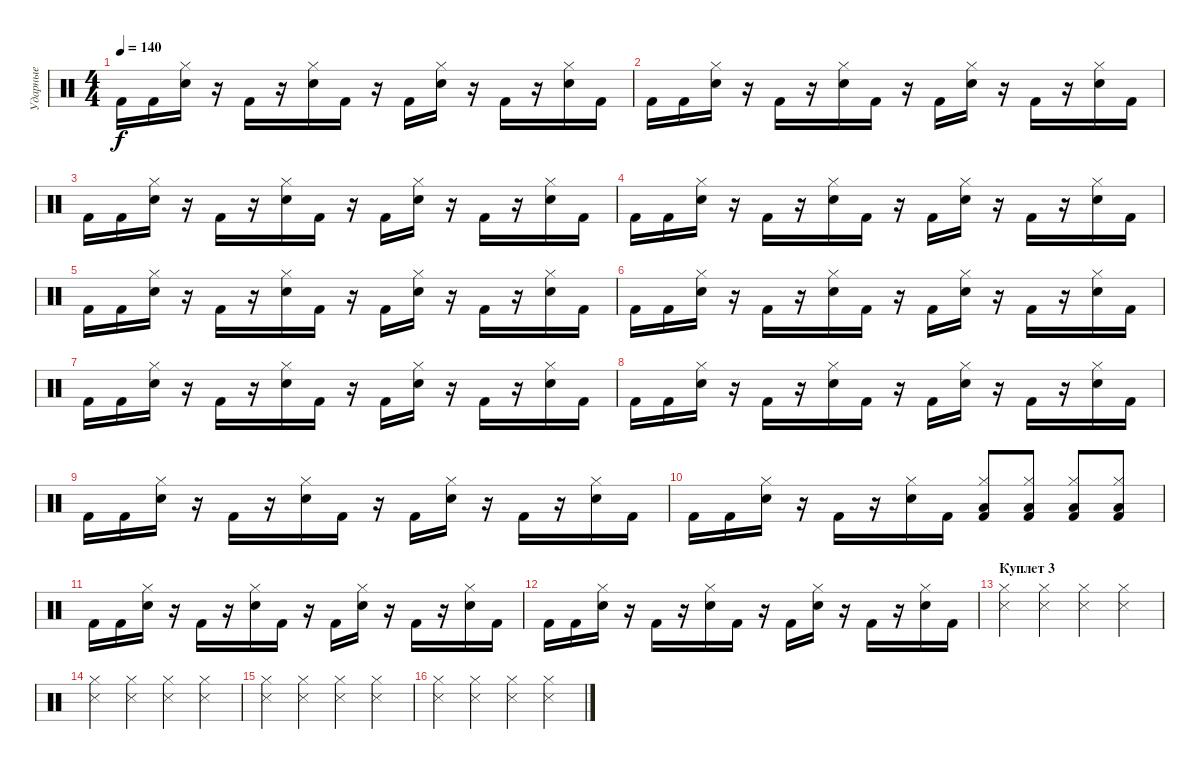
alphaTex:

\track ("Ударные" "Ударные") {instrument percussion}
\staff {score}
\articulation defaults
\ts (4 4)
\tempo 140
\clef neutral
\ks c "Kick (hit) 2".16{dy f} "Kick (hit) 2".16
("Snare (hit) 2" "Hi-Hat (closed)").16 r.16 "Kick (hit) 2".16 r.16 ("Snare (hit) 2" "Hi-Hat (closed)").16 "Kick (hit) 2".16 r.16 "Kick (hit) 2".16 ("Snare (hit) 2" "Hi-Hat (closed)").16 r.16 "Kick (hit) 2".16 r.16 ("Snare (hit) 2" "Hi-Hat (closed)").16 "Kick (hit) 2".16 |
"Kick (hit) 2".16 "Kick (hit) 2".16 ("Snare (hit) 2" "Hi-Hat (closed)").16 r.16 "Kick (hit) 2".16 r.16 ("Snare (hit) 2" "Hi-Hat (closed)").16 "Kick (hit) 2".16 r.16 "Kick (hit) 2".16 ("Snare (hit) 2" "Hi-Hat (closed)").16 r.16 "Kick (hit) 2".16 r.16 ("Snare (hit) 2" "Hi-Hat (closed)").16 "Kick (hit) 2".16 |
"Kick (hit) 2".16 "Kick (hit) 2".16 ("Snare (hit) 2" "Hi-Hat (closed)").16 r.16 "Kick (hit) 2".16 r.16 ("Snare (hit) 2" "Hi-Hat (closed)").16 "Kick (hit) 2".16 r.16 "Kick (hit) 2".16 ("Snare (hit) 2" "Hi-Hat (closed)").16 r.16 "Kick (hit) 2".16 r.16 ("Snare (hit) 2" "Hi-Hat (closed)").16 "Kick (hit) 2".16 |
"Kick (hit) 2".16 "Kick (hit) 2".16 ("Snare (hit) 2" "Hi-Hat (closed)").16 r.16 "Kick (hit) 2".16 r.16 ("Snare (hit) 2" "Hi-Hat (closed)").16 "Kick (hit) 2".16 r.16 "Kick (hit) 2".16 ("Snare (hit) 2" "Hi-Hat (closed)").16 r.16 "Kick (hit) 2".16 r.16 ("Snare (hit) 2" "Hi-Hat (closed)").16 "Kick (hit) 2".16 |
"Kick (hit) 2".16{volume 16} "Kick (hit) 2".16 ("Snare (hit) 2" "Hi-Hat (closed)").16 r.16 "Kick (hit) 2".16 r.16 ("Snare (hit) 2" "Hi-Hat (closed)").16 "Kick (hit) 2".16 r.16 "Kick (hit) 2".16 ("Snare (hit) 2" "Hi-Hat (closed)").16 r.16 "Kick (hit) 2".16 r.16 ("Snare (hit) 2" "Hi-Hat (closed)").16 "Kick (hit) 2".16 |
"Kick (hit) 2".16 "Kick (hit) 2".16 ("Snare (hit) 2" "Hi-Hat (closed)").16 r.16 "Kick (hit) 2".16 r.16 ("Snare (hit) 2" "Hi-Hat (closed)").16 "Kick (hit) 2".16 r.16 "Kick (hit) 2".16 ("Snare (hit) 2" "Hi-Hat (closed)").16 r.16 "Kick (hit) 2".16 r.16 ("Snare (hit) 2" "Hi-Hat (closed)").16 "Kick (hit) 2".16 |
"Kick (hit) 2".16{volume 16} "Kick (hit) 2".16 ("Snare (hit) 2" "Hi-Hat (closed)").16 r.16 "Kick (hit) 2".16 r.16 ("Snare (hit) 2" "Hi-Hat (closed)").16 "Kick (hit) 2".16 r.16 "Kick (hit) 2".16 ("Snare (hit) 2" "Hi-Hat (closed)").16 r.16 "Kick (hit) 2".16 r.16 ("Snare (hit) 2" "Hi-Hat (closed)").16 "Kick (hit) 2".16 |
"Kick (hit) 2".16 "Kick (hit) 2".16 ("Snare (hit) 2" "Hi-Hat (closed)").16 r.16 "Kick (hit) 2".16 r.16 ("Snare (hit) 2" "Hi-Hat (closed)").16 "Kick (hit) 2".16 r.16 "Kick (hit) 2".16 ("Snare (hit) 2" "Hi-Hat (closed)").16 r.16 "Kick (hit) 2".16 r.16 ("Snare (hit) 2" "Hi-Hat (closed)").16 "Kick (hit) 2".16 |
"Kick (hit) 2".16{volume 16} "Kick (hit) 2".16 ("Snare (hit) 2" "Hi-Hat (closed)").16 r.16 "Kick (hit) 2".16 r.16 ("Snare (hit) 2" "Hi-Hat (closed)").16 "Kick (hit) 2".16 r.16 "Kick (hit) 2".16 ("Snare (hit) 2" "Hi-Hat (closed)").16 r.16 "Kick (hit) 2".16 r.16 ("Snare (hit) 2" "Hi-Hat (closed)").16 "Kick (hit) 2".16 |
"Kick (hit) 2".16 "Kick (hit) 2".16 ("Snare (hit) 2" "Hi-Hat (closed)").16 r.16 "Kick (hit) 2".16 r.16 ("Snare (hit) 2" "Hi-Hat (closed)").16 "Kick (hit) 2".16 ("Kick (hit) 2" "Hi-Hat (closed)" "Low Tom (hit)").8 ("Kick (hit) 2" "Hi-Hat (closed)" "Low Tom (hit)").8 ("Kick (hit) 2" "Hi-Hat (closed)" "Low Tom (hit)").8 ("Kick (hit) 2" "Hi-Hat (closed)" "Low Tom (hit)").8 |
"Kick (hit) 2".16 "Kick (hit) 2".16 ("Snare (hit) 2" "Hi-Hat (closed)").16 r.16 "Kick (hit) 2".16 r.16 ("Snare (hit) 2" "Hi-Hat (closed)").16 "Kick (hit) 2".16 r.16 "Kick (hit) 2".16 ("Snare (hit) 2" "Hi-Hat (closed)").16 r.16 "Kick (hit) 2".16 r.16 ("Snare (hit) 2" "Hi-Hat (closed)").16 "Kick (hit) 2".16 |
"Kick (hit) 2".16 "Kick (hit) 2".16 ("Snare (hit) 2" "Hi-Hat (closed)").16 r.16 "Kick (hit) 2".16 r.16 ("Snare (hit) 2" "Hi-Hat (closed)").16 "Kick (hit) 2".16 r.16 "Kick (hit) 2".16 ("Snare (hit) 2" "Hi-Hat (closed)").16 r.16 "Kick (hit) 2".16 r.16 ("Snare (hit) 2" "Hi-Hat (closed)").16 "Kick (hit) 2".16 |
\section ("" "Куплет 3")
("Hi-Hat (closed)" "Snare (side stick) 3").4 ("Hi-Hat (closed)" "Snare (side stick) 3").4 ("Hi-Hat (closed)" "Snare (side stick) 3").4 ("Hi-Hat (closed)" "Snare (side stick) 3").4 |
("Hi-Hat (closed)" "Snare (side stick) 3").4 ("Hi-Hat (closed)" "Snare (side stick) 3").4 ("Hi-Hat (closed)" "Snare (side stick) 3").4 ("Hi-Hat (closed)" "Snare (side stick) 3").4 |
("Hi-Hat (closed)" "Snare (side stick) 3").4 ("Hi-Hat (closed)" "Snare (side stick) 3").4 ("Hi-Hat (closed)" "Snare (side stick) 3").4 ("Hi-Hat (closed)" "Snare (side stick) 3").4 |
("Hi-Hat (closed)" "Snare (side stick) 3").4 ("Hi-Hat (closed)" "Snare (side stick) 3").4 ("Hi-Hat (closed)" "Snare (side stick) 3").4 ("Hi-Hat (closed)" "Snare (side stick) 3").4
